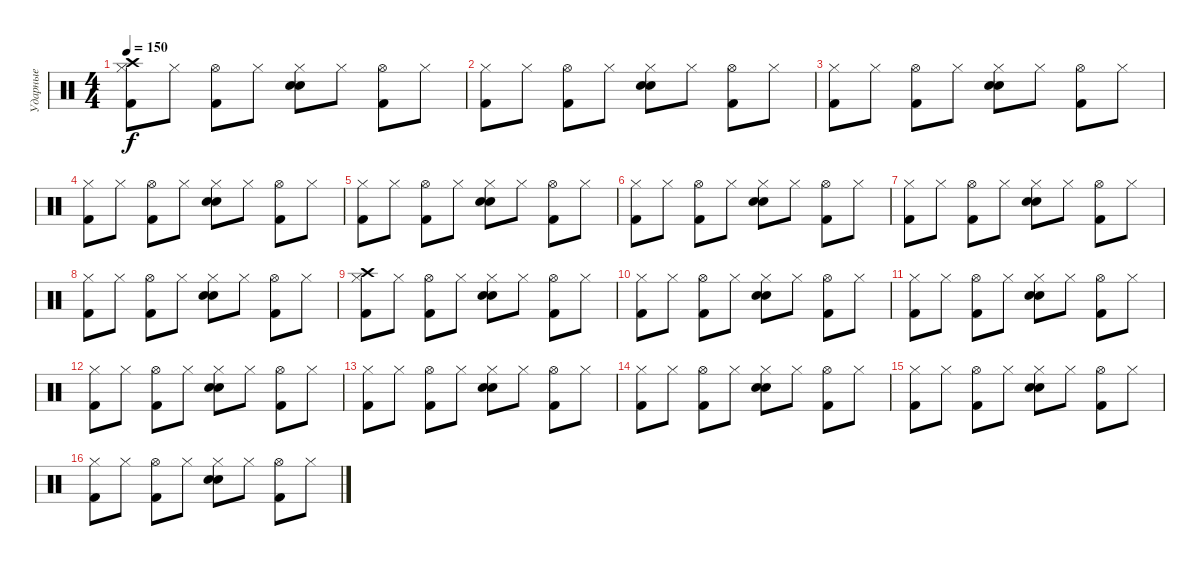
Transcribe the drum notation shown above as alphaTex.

\track ("Ударные" "Ударные") {instrument percussion}
\staff {score}
\articulation defaults
\ts (4 4)
\tempo 150
\clef neutral
\ks c
("Hi-Hat (closed)" "Crash high (hit)" "Kick (hit) 2").8{dy f} "Hi-Hat (closed)".8 ("Hi-Hat (open)" "Kick (hit) 2").8 "Hi-Hat (closed)".8 ("Hi-Hat (closed)" "Snare (hit) 2" "Electric Snare (hit)").8 "Hi-Hat (closed)".8 ("Hi-Hat (open)" "Kick (hit) 2").8 "Hi-Hat (closed)".8 |
("Hi-Hat (closed)" "Kick (hit) 2").8 "Hi-Hat (closed)".8 ("Hi-Hat (open)" "Kick (hit) 2").8 "Hi-Hat (closed)".8 ("Hi-Hat (closed)" "Snare (hit) 2" "Electric Snare (hit)").8 "Hi-Hat (closed)".8 ("Hi-Hat (open)" "Kick (hit) 2").8 "Hi-Hat (closed)".8 |
("Hi-Hat (closed)" "Kick (hit) 2").8 "Hi-Hat (closed)".8 ("Hi-Hat (open)" "Kick (hit) 2").8 "Hi-Hat (closed)".8 ("Hi-Hat (closed)" "Snare (hit) 2" "Electric Snare (hit)").8 "Hi-Hat (closed)".8 ("Hi-Hat (open)" "Kick (hit) 2").8 "Hi-Hat (closed)".8 |
("Hi-Hat (closed)" "Kick (hit) 2").8 "Hi-Hat (closed)".8 ("Hi-Hat (open)" "Kick (hit) 2").8 "Hi-Hat (closed)".8 ("Hi-Hat (closed)" "Snare (hit) 2" "Electric Snare (hit)").8 "Hi-Hat (closed)".8 ("Hi-Hat (open)" "Kick (hit) 2").8 "Hi-Hat (closed)".8 |
("Hi-Hat (closed)" "Kick (hit) 2").8 "Hi-Hat (closed)".8 ("Hi-Hat (open)" "Kick (hit) 2").8 "Hi-Hat (closed)".8 ("Hi-Hat (closed)" "Snare (hit) 2" "Electric Snare (hit)").8 "Hi-Hat (closed)".8 ("Hi-Hat (open)" "Kick (hit) 2").8 "Hi-Hat (closed)".8 |
("Hi-Hat (closed)" "Kick (hit) 2").8 "Hi-Hat (closed)".8 ("Hi-Hat (open)" "Kick (hit) 2").8 "Hi-Hat (closed)".8 ("Hi-Hat (closed)" "Snare (hit) 2" "Electric Snare (hit)").8 "Hi-Hat (closed)".8 ("Hi-Hat (open)" "Kick (hit) 2").8 "Hi-Hat (closed)".8 |
("Hi-Hat (closed)" "Kick (hit) 2").8 "Hi-Hat (closed)".8 ("Hi-Hat (open)" "Kick (hit) 2").8 "Hi-Hat (closed)".8 ("Hi-Hat (closed)" "Snare (hit) 2" "Electric Snare (hit)").8 "Hi-Hat (closed)".8 ("Hi-Hat (open)" "Kick (hit) 2").8 "Hi-Hat (closed)".8 |
("Hi-Hat (closed)" "Kick (hit) 2").8 "Hi-Hat (closed)".8 ("Hi-Hat (open)" "Kick (hit) 2").8 "Hi-Hat (closed)".8 ("Hi-Hat (closed)" "Snare (hit) 2" "Electric Snare (hit)").8 "Hi-Hat (closed)".8 ("Hi-Hat (open)" "Kick (hit) 2").8 "Hi-Hat (closed)".8 |
("Hi-Hat (closed)" "Crash high (hit)" "Kick (hit) 2").8 "Hi-Hat (closed)".8 ("Hi-Hat (open)" "Kick (hit) 2").8 "Hi-Hat (closed)".8 ("Hi-Hat (closed)" "Snare (hit) 2" "Electric Snare (hit)").8 "Hi-Hat (closed)".8 ("Hi-Hat (open)" "Kick (hit) 2").8 "Hi-Hat (closed)".8 |
("Hi-Hat (closed)" "Kick (hit) 2").8 "Hi-Hat (closed)".8 ("Hi-Hat (open)" "Kick (hit) 2").8 "Hi-Hat (closed)".8 ("Hi-Hat (closed)" "Snare (hit) 2" "Electric Snare (hit)").8 "Hi-Hat (closed)".8 ("Hi-Hat (open)" "Kick (hit) 2").8 "Hi-Hat (closed)".8 |
("Hi-Hat (closed)" "Kick (hit) 2").8 "Hi-Hat (closed)".8 ("Hi-Hat (open)" "Kick (hit) 2").8 "Hi-Hat (closed)".8 ("Hi-Hat (closed)" "Snare (hit) 2" "Electric Snare (hit)").8 "Hi-Hat (closed)".8 ("Hi-Hat (open)" "Kick (hit) 2").8 "Hi-Hat (closed)".8 |
("Hi-Hat (closed)" "Kick (hit) 2").8 "Hi-Hat (closed)".8 ("Hi-Hat (open)" "Kick (hit) 2").8 "Hi-Hat (closed)".8 ("Hi-Hat (closed)" "Snare (hit) 2" "Electric Snare (hit)").8 "Hi-Hat (closed)".8 ("Hi-Hat (open)" "Kick (hit) 2").8 "Hi-Hat (closed)".8 |
("Hi-Hat (closed)" "Kick (hit) 2").8 "Hi-Hat (closed)".8 ("Hi-Hat (open)" "Kick (hit) 2").8 "Hi-Hat (closed)".8 ("Hi-Hat (closed)" "Snare (hit) 2" "Electric Snare (hit)").8 "Hi-Hat (closed)".8 ("Hi-Hat (open)" "Kick (hit) 2").8 "Hi-Hat (closed)".8 |
("Hi-Hat (closed)" "Kick (hit) 2").8 "Hi-Hat (closed)".8 ("Hi-Hat (open)" "Kick (hit) 2").8 "Hi-Hat (closed)".8 ("Hi-Hat (closed)" "Snare (hit) 2" "Electric Snare (hit)").8 "Hi-Hat (closed)".8 ("Hi-Hat (open)" "Kick (hit) 2").8 "Hi-Hat (closed)".8 |
("Hi-Hat (closed)" "Kick (hit) 2").8 "Hi-Hat (closed)".8 ("Hi-Hat (open)" "Kick (hit) 2").8 "Hi-Hat (closed)".8 ("Hi-Hat (closed)" "Snare (hit) 2" "Electric Snare (hit)").8 "Hi-Hat (closed)".8 ("Hi-Hat (open)" "Kick (hit) 2").8 "Hi-Hat (closed)".8 |
("Hi-Hat (closed)" "Kick (hit) 2").8 "Hi-Hat (closed)".8 ("Hi-Hat (open)" "Kick (hit) 2").8 "Hi-Hat (closed)".8 ("Hi-Hat (closed)" "Snare (hit) 2" "Electric Snare (hit)").8 "Hi-Hat (closed)".8 ("Hi-Hat (open)" "Kick (hit) 2").8 "Hi-Hat (closed)".8
